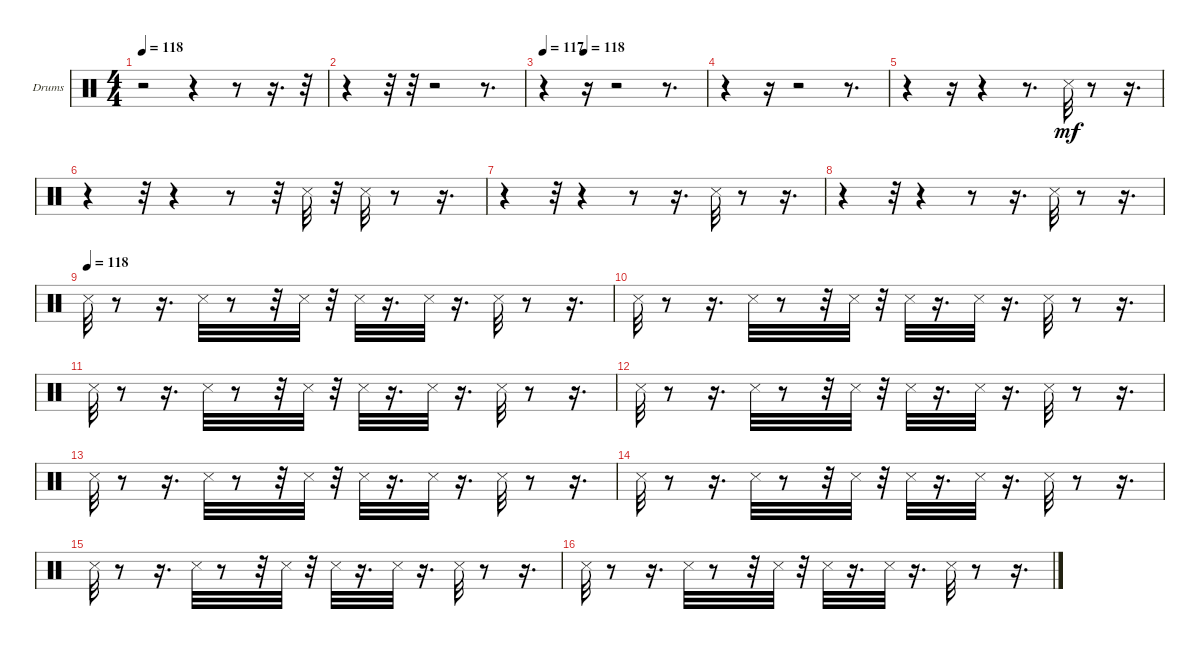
\bracketExtendMode groupsimilarinstruments
\firstSystemTrackNameOrientation horizontal
\otherSystemsTrackNameOrientation horizontal
\track ("Drums" "Drums") {instrument percussion}
\staff {score}
\articulation defaults
\ts (4 4)
\tempo 118
\clef neutral
\ks c
r.2{dy mf} r.4 r.8 r.16{d} r.32 |
r.4 r.32 r.32 r.2 r.8{d} |
\tempo 117
\tempo (118 0.25)
r.4 r.16 r.2 r.8{d} |
r.4 r.16 r.2 r.8{d} |
r.4 r.16 r.4 r.8{d} "Snare (side stick) 3".32 r.8 r.16{d} |
r.4 r.32 r.4 r.8 r.32 "Snare (side stick) 3".32 r.32 "Snare (side stick) 3".32 r.8 r.16{d} |
r.4 r.32 r.4 r.8 r.16{d} "Snare (side stick) 3".32 r.8 r.16{d} |
r.4 r.32 r.4 r.8 r.16{d} "Snare (side stick) 3".32 r.8 r.16{d} |
\tempo (118)
"Snare (side stick) 3".32 r.8 r.16{d} "Snare (side stick) 3".32 r.8 r.32 "Snare (side stick) 3".32 r.32 "Snare (side stick) 3".32 r.16{d} "Snare (side stick) 3".32 r.16{d} "Snare (side stick) 3".32 r.8 r.16{d} |
"Snare (side stick) 3".32 r.8 r.16{d} "Snare (side stick) 3".32 r.8 r.32 "Snare (side stick) 3".32 r.32 "Snare (side stick) 3".32 r.16{d} "Snare (side stick) 3".32 r.16{d} "Snare (side stick) 3".32 r.8 r.16{d} |
"Snare (side stick) 3".32 r.8 r.16{d} "Snare (side stick) 3".32 r.8 r.32 "Snare (side stick) 3".32 r.32 "Snare (side stick) 3".32 r.16{d} "Snare (side stick) 3".32 r.16{d} "Snare (side stick) 3".32 r.8 r.16{d} |
"Snare (side stick) 3".32 r.8 r.16{d} "Snare (side stick) 3".32 r.8 r.32 "Snare (side stick) 3".32 r.32 "Snare (side stick) 3".32 r.16{d} "Snare (side stick) 3".32 r.16{d} "Snare (side stick) 3".32 r.8 r.16{d} |
"Snare (side stick) 3".32 r.8 r.16{d} "Snare (side stick) 3".32 r.8 r.32 "Snare (side stick) 3".32 r.32 "Snare (side stick) 3".32 r.16{d} "Snare (side stick) 3".32 r.16{d} "Snare (side stick) 3".32 r.8 r.16{d} |
"Snare (side stick) 3".32 r.8 r.16{d} "Snare (side stick) 3".32 r.8 r.32 "Snare (side stick) 3".32 r.32 "Snare (side stick) 3".32 r.16{d} "Snare (side stick) 3".32 r.16{d} "Snare (side stick) 3".32 r.8 r.16{d} |
"Snare (side stick) 3".32 r.8 r.16{d} "Snare (side stick) 3".32 r.8 r.32 "Snare (side stick) 3".32 r.32 "Snare (side stick) 3".32 r.16{d} "Snare (side stick) 3".32 r.16{d} "Snare (side stick) 3".32 r.8 r.16{d} |
"Snare (side stick) 3".32 r.8 r.16{d} "Snare (side stick) 3".32 r.8 r.32 "Snare (side stick) 3".32 r.32 "Snare (side stick) 3".32 r.16{d} "Snare (side stick) 3".32 r.16{d} "Snare (side stick) 3".32 r.8 r.16{d}
